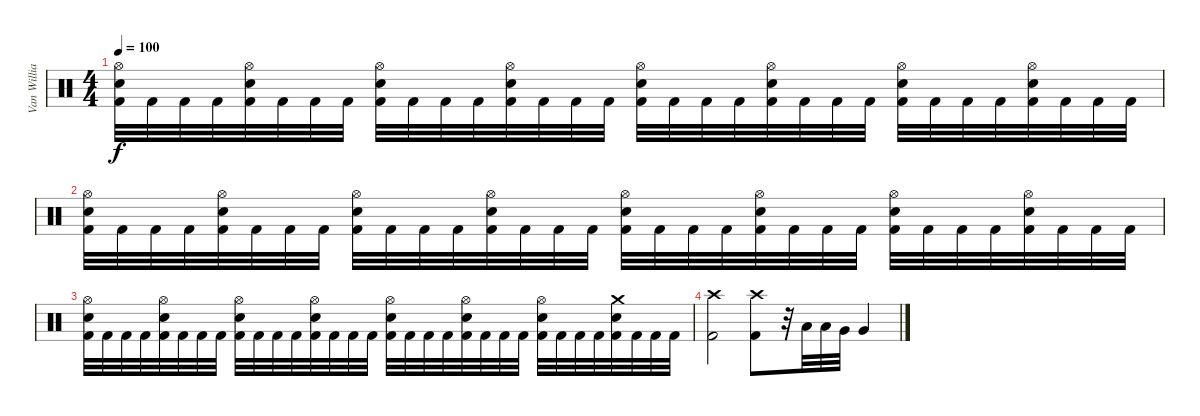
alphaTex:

\track ("Van Williams" "Van Willia") {instrument percussion}
\staff {score}
\articulation defaults
\ts (4 4)
\tempo 100
\clef neutral
\ks c
("Hi-Hat (open)" "Kick (hit) 2" "Electric Snare (hit)").32{dy f} "Kick (hit) 2".32 "Kick (hit) 2".32 "Kick (hit) 2".32 ("Hi-Hat (open)" "Kick (hit) 2" "Electric Snare (hit)").32 "Kick (hit) 2".32 "Kick (hit) 2".32 "Kick (hit) 2".32 ("Hi-Hat (open)" "Kick (hit) 2" "Electric Snare (hit)").32 "Kick (hit) 2".32 "Kick (hit) 2".32 "Kick (hit) 2".32 ("Hi-Hat (open)" "Kick (hit) 2" "Electric Snare (hit)").32 "Kick (hit) 2".32 "Kick (hit) 2".32 "Kick (hit) 2".32 ("Hi-Hat (open)" "Kick (hit) 2" "Electric Snare (hit)").32 "Kick (hit) 2".32 "Kick (hit) 2".32 "Kick (hit) 2".32 ("Hi-Hat (open)" "Kick (hit) 2" "Electric Snare (hit)").32 "Kick (hit) 2".32 "Kick (hit) 2".32 "Kick (hit) 2".32 ("Hi-Hat (open)" "Kick (hit) 2" "Electric Snare (hit)").32 "Kick (hit) 2".32 "Kick (hit) 2".32 "Kick (hit) 2".32 ("Hi-Hat (open)" "Kick (hit) 2" "Electric Snare (hit)").32 "Kick (hit) 2".32 "Kick (hit) 2".32 "Kick (hit) 2".32 |
("Hi-Hat (open)" "Kick (hit) 2" "Electric Snare (hit)").32 "Kick (hit) 2".32 "Kick (hit) 2".32 "Kick (hit) 2".32 ("Hi-Hat (open)" "Kick (hit) 2" "Electric Snare (hit)").32 "Kick (hit) 2".32 "Kick (hit) 2".32 "Kick (hit) 2".32 ("Hi-Hat (open)" "Kick (hit) 2" "Electric Snare (hit)").32 "Kick (hit) 2".32 "Kick (hit) 2".32 "Kick (hit) 2".32 ("Hi-Hat (open)" "Kick (hit) 2" "Electric Snare (hit)").32 "Kick (hit) 2".32 "Kick (hit) 2".32 "Kick (hit) 2".32 ("Hi-Hat (open)" "Kick (hit) 2" "Electric Snare (hit)").32 "Kick (hit) 2".32 "Kick (hit) 2".32 "Kick (hit) 2".32 ("Hi-Hat (open)" "Kick (hit) 2" "Electric Snare (hit)").32 "Kick (hit) 2".32 "Kick (hit) 2".32 "Kick (hit) 2".32 ("Hi-Hat (open)" "Kick (hit) 2" "Electric Snare (hit)").32 "Kick (hit) 2".32 "Kick (hit) 2".32 "Kick (hit) 2".32 ("Hi-Hat (open)" "Kick (hit) 2" "Electric Snare (hit)").32 "Kick (hit) 2".32 "Kick (hit) 2".32 "Kick (hit) 2".32 |
("Hi-Hat (open)" "Kick (hit) 2" "Electric Snare (hit)").32 "Kick (hit) 2".32 "Kick (hit) 2".32 "Kick (hit) 2".32 ("Hi-Hat (open)" "Kick (hit) 2" "Electric Snare (hit)").32 "Kick (hit) 2".32 "Kick (hit) 2".32 "Kick (hit) 2".32 ("Hi-Hat (open)" "Kick (hit) 2" "Electric Snare (hit)").32 "Kick (hit) 2".32 "Kick (hit) 2".32 "Kick (hit) 2".32 ("Hi-Hat (open)" "Kick (hit) 2" "Electric Snare (hit)").32 "Kick (hit) 2".32 "Kick (hit) 2".32 "Kick (hit) 2".32 ("Hi-Hat (open)" "Kick (hit) 2" "Electric Snare (hit)").32 "Kick (hit) 2".32 "Kick (hit) 2".32 "Kick (hit) 2".32 ("Hi-Hat (open)" "Kick (hit) 2" "Electric Snare (hit)").32 "Kick (hit) 2".32 "Kick (hit) 2".32 "Kick (hit) 2".32 ("Hi-Hat (open)" "Kick (hit) 2" "Electric Snare (hit)").32 "Kick (hit) 2".32 "Kick (hit) 2".32 "Kick (hit) 2".32 ("Crash medium (hit)" "Kick (hit) 2" "Electric Snare (hit)").32 "Kick (hit) 2".32 "Kick (hit) 2".32 "Kick (hit) 2".32 |
("Crash high (hit)" "Kick (hit) 2").2 ("Crash high (hit)" "Kick (hit) 2").8 r.32 "Low Tom (hit)".32 "Low Tom (hit)".32 "Very Low Tom (hit)".32 "Very Low Tom (hit)".4
